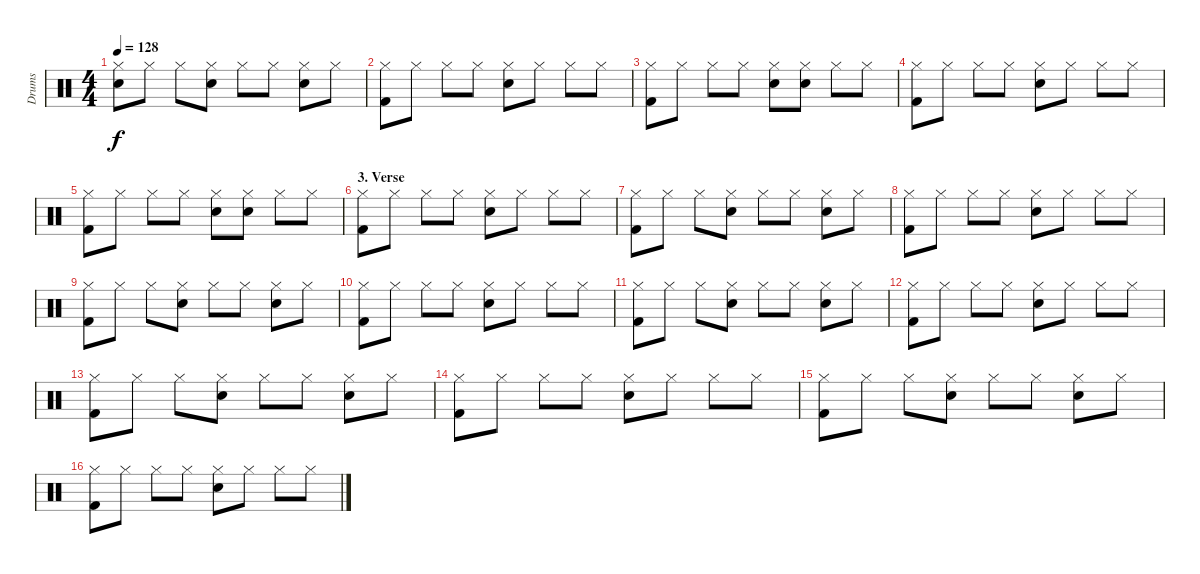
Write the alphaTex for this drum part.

\track ("Drums" "Drums") {instrument percussion}
\staff {score}
\articulation defaults
\ts (4 4)
\tempo 128
\clef neutral
\ks c
("Hi-Hat (closed)" "Snare (hit) 2").8{dy f} "Hi-Hat (closed)".8 "Hi-Hat (closed)".8 ("Hi-Hat (closed)" "Snare (hit) 2").8 "Hi-Hat (closed)".8 "Hi-Hat (closed)".8 ("Hi-Hat (closed)" "Snare (hit) 2").8 "Hi-Hat (closed)".8 |
("Hi-Hat (closed)" "Kick (hit) 2").8 "Hi-Hat (closed)".8 "Hi-Hat (closed)".8 "Hi-Hat (closed)".8 ("Hi-Hat (closed)" "Snare (hit) 2").8 "Hi-Hat (closed)".8 "Hi-Hat (closed)".8 "Hi-Hat (closed)".8 |
("Hi-Hat (closed)" "Kick (hit) 2").8 "Hi-Hat (closed)".8 "Hi-Hat (closed)".8 "Hi-Hat (closed)".8 ("Hi-Hat (closed)" "Snare (hit) 2").8 ("Hi-Hat (closed)" "Snare (hit) 2").8 "Hi-Hat (closed)".8 "Hi-Hat (closed)".8 |
("Hi-Hat (closed)" "Kick (hit) 2").8 "Hi-Hat (closed)".8 "Hi-Hat (closed)".8 "Hi-Hat (closed)".8 ("Hi-Hat (closed)" "Snare (hit) 2").8 "Hi-Hat (closed)".8 "Hi-Hat (closed)".8 "Hi-Hat (closed)".8 |
("Hi-Hat (closed)" "Kick (hit) 2").8 "Hi-Hat (closed)".8 "Hi-Hat (closed)".8 "Hi-Hat (closed)".8 ("Hi-Hat (closed)" "Snare (hit) 2").8 ("Hi-Hat (closed)" "Snare (hit) 2").8 "Hi-Hat (closed)".8 "Hi-Hat (closed)".8 |
\section ("" "3. Verse")
("Hi-Hat (closed)" "Kick (hit) 2").8 "Hi-Hat (closed)".8 "Hi-Hat (closed)".8 "Hi-Hat (closed)".8 ("Hi-Hat (closed)" "Snare (hit) 2").8 "Hi-Hat (closed)".8 "Hi-Hat (closed)".8 "Hi-Hat (closed)".8 |
("Hi-Hat (closed)" "Kick (hit) 2").8 "Hi-Hat (closed)".8 "Hi-Hat (closed)".8 ("Hi-Hat (closed)" "Snare (hit) 2").8 "Hi-Hat (closed)".8 "Hi-Hat (closed)".8 ("Hi-Hat (closed)" "Snare (hit) 2").8 "Hi-Hat (closed)".8 |
("Hi-Hat (closed)" "Kick (hit) 2").8 "Hi-Hat (closed)".8 "Hi-Hat (closed)".8 "Hi-Hat (closed)".8 ("Hi-Hat (closed)" "Snare (hit) 2").8 "Hi-Hat (closed)".8 "Hi-Hat (closed)".8 "Hi-Hat (closed)".8 |
("Hi-Hat (closed)" "Kick (hit) 2").8 "Hi-Hat (closed)".8 "Hi-Hat (closed)".8 ("Hi-Hat (closed)" "Snare (hit) 2").8 "Hi-Hat (closed)".8 "Hi-Hat (closed)".8 ("Hi-Hat (closed)" "Snare (hit) 2").8 "Hi-Hat (closed)".8 |
("Hi-Hat (closed)" "Kick (hit) 2").8 "Hi-Hat (closed)".8 "Hi-Hat (closed)".8 "Hi-Hat (closed)".8 ("Hi-Hat (closed)" "Snare (hit) 2").8 "Hi-Hat (closed)".8 "Hi-Hat (closed)".8 "Hi-Hat (closed)".8 |
("Hi-Hat (closed)" "Kick (hit) 2").8 "Hi-Hat (closed)".8 "Hi-Hat (closed)".8 ("Hi-Hat (closed)" "Snare (hit) 2").8 "Hi-Hat (closed)".8 "Hi-Hat (closed)".8 ("Hi-Hat (closed)" "Snare (hit) 2").8 "Hi-Hat (closed)".8 |
("Hi-Hat (closed)" "Kick (hit) 2").8 "Hi-Hat (closed)".8 "Hi-Hat (closed)".8 "Hi-Hat (closed)".8 ("Hi-Hat (closed)" "Snare (hit) 2").8 "Hi-Hat (closed)".8 "Hi-Hat (closed)".8 "Hi-Hat (closed)".8 |
("Hi-Hat (closed)" "Kick (hit) 2").8 "Hi-Hat (closed)".8 "Hi-Hat (closed)".8 ("Hi-Hat (closed)" "Snare (hit) 2").8 "Hi-Hat (closed)".8 "Hi-Hat (closed)".8 ("Hi-Hat (closed)" "Snare (hit) 2").8 "Hi-Hat (closed)".8 |
("Hi-Hat (closed)" "Kick (hit) 2").8 "Hi-Hat (closed)".8 "Hi-Hat (closed)".8 "Hi-Hat (closed)".8 ("Hi-Hat (closed)" "Snare (hit) 2").8 "Hi-Hat (closed)".8 "Hi-Hat (closed)".8 "Hi-Hat (closed)".8 |
("Hi-Hat (closed)" "Kick (hit) 2").8 "Hi-Hat (closed)".8 "Hi-Hat (closed)".8 ("Hi-Hat (closed)" "Snare (hit) 2").8 "Hi-Hat (closed)".8 "Hi-Hat (closed)".8 ("Hi-Hat (closed)" "Snare (hit) 2").8 "Hi-Hat (closed)".8 |
("Hi-Hat (closed)" "Kick (hit) 2").8 "Hi-Hat (closed)".8 "Hi-Hat (closed)".8 "Hi-Hat (closed)".8 ("Hi-Hat (closed)" "Snare (hit) 2").8 "Hi-Hat (closed)".8 "Hi-Hat (closed)".8 "Hi-Hat (closed)".8
